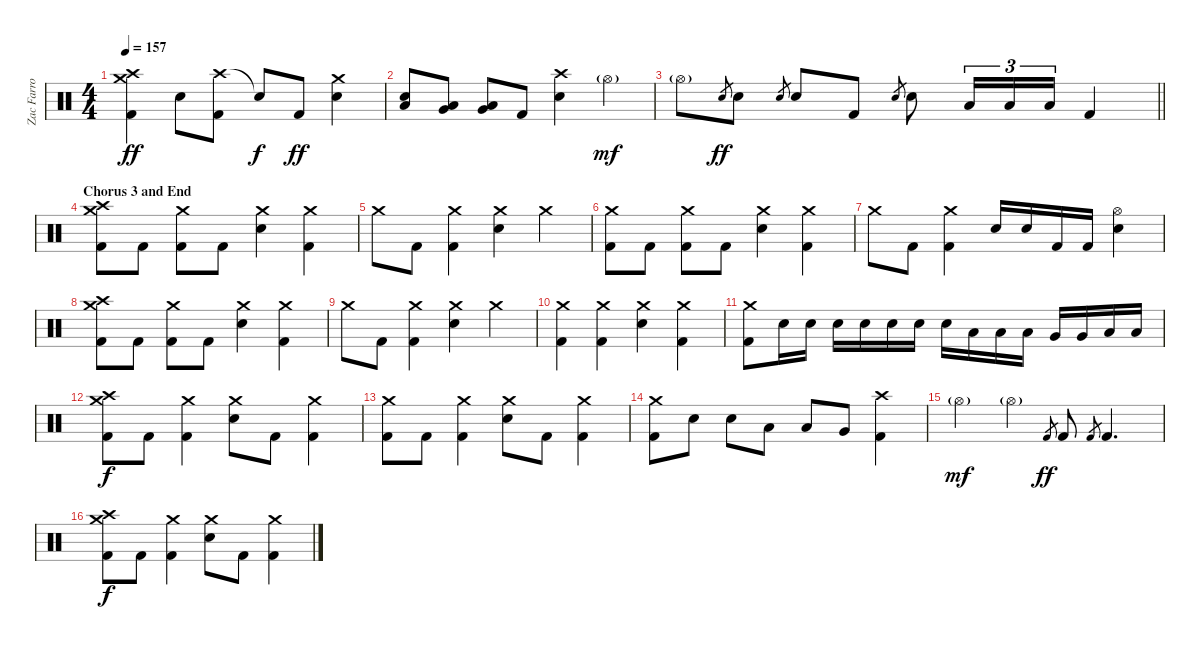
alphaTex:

\track ("Zac Farro | Drum" "Zac Farro ") {instrument percussion}
\staff {score}
\articulation defaults
\ts (4 4)
\tempo 157
\clef neutral
\ks c
("Crash high (hit)" "Crash medium (hit)" "Kick (hit) 2").4{dy ff} "Electric Snare (hit)".8 ("Crash high (hit)" "Kick (hit) 2").8 "Snare (hit)"{t}.8{dy f} "Kick (hit) 2".8{dy ff} ("Crash medium (hit)" "Electric Snare (hit)").4 |
("Low Tom (hit)" "Electric Snare (hit)").8 ("Low Tom (hit)" "Very Low Tom (hit)").8 ("Low Tom (hit)" "Very Low Tom (hit)").8 "Kick (hit) 2".8 ("Crash high (hit)" "Electric Snare (hit)").4 "Hi-Hat (open)"{g}.4{dy mf} |
\barLineRight lightlight "Hi-Hat (open)"{g}.8 "Electric Snare (hit)".8{gr dy ff} "Electric Snare (hit)".8 "Electric Snare (hit)".8{gr} "Electric Snare (hit)".8 "Kick (hit) 2".8 "Electric Snare (hit)".8{gr} "Electric Snare (hit)".8 "Low Tom (hit)".16{tu (3 2)} "Low Tom (hit)".16{tu (3 2)} "Low Tom (hit)".16{tu (3 2)} "Kick (hit) 2".4
|
\section ("" "Chorus 3 and End")
("Crash high (hit)" "Crash medium (hit)" "Kick (hit) 2").8 "Kick (hit) 2".8 ("Crash medium (hit)" "Kick (hit) 2").8 "Kick (hit) 2".8 ("Crash medium (hit)" "Electric Snare (hit)").4 ("Crash medium (hit)" "Kick (hit) 2").4 |
"Crash medium (hit)".8 "Kick (hit) 2".8 ("Crash medium (hit)" "Kick (hit) 2").4 ("Crash medium (hit)" "Electric Snare (hit)").4 "Crash medium (hit)".4 |
("Crash medium (hit)" "Kick (hit) 2").8 "Kick (hit) 2".8 ("Crash medium (hit)" "Kick (hit) 2").8 "Kick (hit) 2".8 ("Crash medium (hit)" "Electric Snare (hit)").4 ("Crash medium (hit)" "Kick (hit) 2").4 |
"Crash medium (hit)".8 "Kick (hit) 2".8 ("Crash medium (hit)" "Kick (hit) 2").4 "Electric Snare (hit)".16 "Electric Snare (hit)".16 "Kick (hit) 2".16 "Kick (hit) 2".16 ("Hi-Hat (open)" "Electric Snare (hit)").4 |
("Crash high (hit)" "Crash medium (hit)" "Kick (hit) 2").8 "Kick (hit) 2".8 ("Crash medium (hit)" "Kick (hit) 2").8 "Kick (hit) 2".8 ("Crash medium (hit)" "Electric Snare (hit)").4 ("Crash medium (hit)" "Kick (hit) 2").4 |
"Crash medium (hit)".8 "Kick (hit) 2".8 ("Crash medium (hit)" "Kick (hit) 2").4 ("Crash medium (hit)" "Electric Snare (hit)").4 "Crash medium (hit)".4 |
("Crash medium (hit)" "Kick (hit) 2").4 ("Crash medium (hit)" "Kick (hit) 2").4 ("Crash medium (hit)" "Electric Snare (hit)").4 ("Crash medium (hit)" "Kick (hit) 2").4 |
("Crash medium (hit)" "Kick (hit) 2").8 "Electric Snare (hit)".16 "Electric Snare (hit)".16 "Electric Snare (hit)".16 "Electric Snare (hit)".16 "Electric Snare (hit)".16 "Electric Snare (hit)".16 "Electric Snare (hit)".16 "Low Tom (hit)".16 "Low Tom (hit)".16 "Low Tom (hit)".16 "Very Low Tom (hit)".16 "Very Low Tom (hit)".16 "Low Floor Tom (hit)".16 "Low Floor Tom (hit)".16 |
("Crash high (hit)" "Crash medium (hit)" "Kick (hit) 2").8{dy f} "Kick (hit) 2".8 ("Crash medium (hit)" "Kick (hit) 2").4 ("Crash medium (hit)" "Electric Snare (hit)").8 "Kick (hit) 2".8 ("Crash medium (hit)" "Kick (hit) 2").4 |
("Crash medium (hit)" "Kick (hit) 2").8 "Kick (hit) 2".8 ("Crash medium (hit)" "Kick (hit) 2").4 ("Crash medium (hit)" "Electric Snare (hit)").8 "Kick (hit) 2".8 ("Crash medium (hit)" "Kick (hit) 2").4 |
("Crash medium (hit)" "Kick (hit) 2").8 "Electric Snare (hit)".8 "Electric Snare (hit)".8 "Low Tom (hit)".8 "Low Tom (hit)".8 "Very Low Tom (hit)".8 ("Crash high (hit)" "Kick (hit) 2").4 |
"Hi-Hat (open)"{g}.4{dy mf} "Hi-Hat (open)"{g}.4 "Kick (hit) 2".8{gr dy ff} "Kick (hit) 2".8 "Kick (hit) 2".8{gr} "Kick (hit) 2".4{d} |
("Crash high (hit)" "Crash medium (hit)" "Kick (hit) 2").8{dy f} "Kick (hit) 2".8 ("Crash medium (hit)" "Kick (hit) 2").4 ("Crash medium (hit)" "Electric Snare (hit)").8 "Kick (hit) 2".8 ("Crash medium (hit)" "Kick (hit) 2").4
